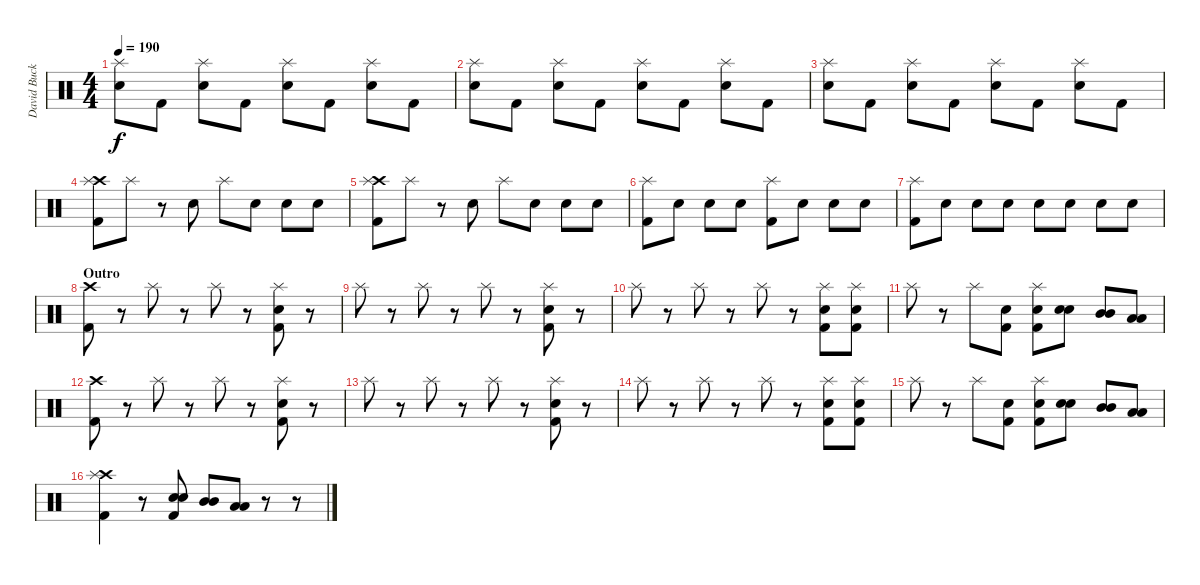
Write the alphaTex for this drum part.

\track ("David Buckner" "David Buck") {instrument percussion}
\staff {score}
\articulation defaults
\ts (4 4)
\tempo 190
\clef neutral
\ks c
("Splash (hit)" "Snare (hit) 2").8{dy f} "Kick (hit) 2".8 ("Splash (hit)" "Snare (hit) 2").8 "Kick (hit) 2".8 ("Splash (hit)" "Snare (hit) 2").8 "Kick (hit) 2".8 ("Splash (hit)" "Snare (hit) 2").8 "Kick (hit) 2".8 |
("Splash (hit)" "Snare (hit) 2").8 "Kick (hit) 2".8 ("Splash (hit)" "Snare (hit) 2").8 "Kick (hit) 2".8 ("Splash (hit)" "Snare (hit) 2").8 "Kick (hit) 2".8 ("Splash (hit)" "Snare (hit) 2").8 "Kick (hit) 2".8 |
("Splash (hit)" "Snare (hit) 2").8 "Kick (hit) 2".8 ("Splash (hit)" "Snare (hit) 2").8 "Kick (hit) 2".8 ("Splash (hit)" "Snare (hit) 2").8 "Kick (hit) 2".8 ("Splash (hit)" "Snare (hit) 2").8 "Kick (hit) 2".8 |
("Crash high (hit)" "Splash (hit)" "Kick (hit) 2").8 "Splash (hit)".8 r.8 "Snare (hit) 2".8 "Splash (hit)".8 "Snare (hit) 2".8 "Snare (hit) 2".8 "Snare (hit) 2".8 |
("Crash high (hit)" "Splash (hit)" "Kick (hit) 2").8 "Splash (hit)".8 r.8 "Snare (hit) 2".8 "Splash (hit)".8 "Snare (hit) 2".8 "Snare (hit) 2".8 "Snare (hit) 2".8 |
("Splash (hit)" "Kick (hit) 2").8 "Snare (hit) 2".8 "Snare (hit) 2".8 "Snare (hit) 2".8 ("Splash (hit)" "Kick (hit) 2").8 "Snare (hit) 2".8 "Snare (hit) 2".8 "Snare (hit) 2".8 |
("Splash (hit)" "Kick (hit) 2").8 "Snare (hit) 2".8 "Snare (hit) 2".8 "Snare (hit) 2".8 "Snare (hit) 2".8 "Snare (hit) 2".8 "Snare (hit) 2".8 "Snare (hit) 2".8 |
\section ("" "Outro")
("Crash high (hit)" "Kick (hit) 2").8 r.8 "Splash (hit)".8 r.8 "Splash (hit)".8 r.8 ("Splash (hit)" "Snare (hit) 2" "Kick (hit) 2").8 r.8 |
"Splash (hit)".8 r.8 "Splash (hit)".8 r.8 "Splash (hit)".8 r.8 ("Splash (hit)" "Snare (hit) 2" "Kick (hit) 2").8 r.8 |
"Splash (hit)".8 r.8 "Splash (hit)".8 r.8 "Splash (hit)".8 r.8 ("Splash (hit)" "Snare (hit) 2" "Kick (hit) 2").8 ("Splash (hit)" "Snare (hit) 2" "Kick (hit) 2").8 |
"Splash (hit)".8 r.8 "Splash (hit)".8 ("Snare (hit) 2" "Kick (hit) 2").8 ("Splash (hit)" "Snare (hit) 2" "Kick (hit) 2").8 ("Snare (hit) 2" "Snare (hit) 2").8 ("Mid Tom (hit)" "Mid Tom (hit)").8 ("Low Tom (hit)" "Low Tom (hit)").8 |
("Crash high (hit)" "Kick (hit) 2").8 r.8 "Splash (hit)".8 r.8 "Splash (hit)".8 r.8 ("Splash (hit)" "Snare (hit) 2" "Kick (hit) 2").8 r.8 |
"Splash (hit)".8 r.8 "Splash (hit)".8 r.8 "Splash (hit)".8 r.8 ("Splash (hit)" "Snare (hit) 2" "Kick (hit) 2").8 r.8 |
"Splash (hit)".8 r.8 "Splash (hit)".8 r.8 "Splash (hit)".8 r.8 ("Splash (hit)" "Snare (hit) 2" "Kick (hit) 2").8 ("Splash (hit)" "Snare (hit) 2" "Kick (hit) 2").8 |
"Splash (hit)".8 r.8 "Splash (hit)".8 ("Snare (hit) 2" "Kick (hit) 2").8 ("Splash (hit)" "Snare (hit) 2" "Kick (hit) 2").8 ("Snare (hit) 2" "Snare (hit) 2").8 ("Mid Tom (hit)" "Mid Tom (hit)").8 ("Low Tom (hit)" "Low Tom (hit)").8 |
("Crash high (hit)" "Splash (hit)" "Kick (hit) 2").4 r.8 ("Snare (hit) 2" "Snare (hit) 2" "Kick (hit) 2").8 ("Mid Tom (hit)" "Mid Tom (hit)").8 ("Low Tom (hit)" "Low Tom (hit)").8 r.8 r.8
